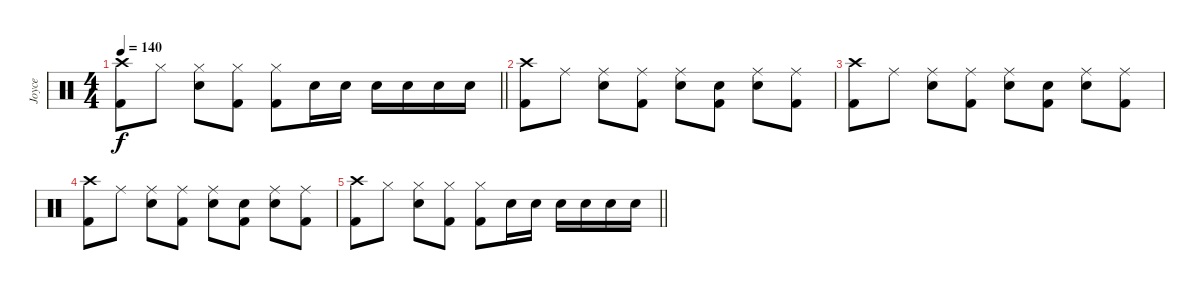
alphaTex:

\track ("Joyce" "Joyce") {instrument percussion}
\staff {score}
\articulation defaults
\ts (4 4)
\tempo 140
\clef neutral
\barLineRight lightlight
\ks c
("Crash high (hit)" "Kick (hit) 2").8{dy f} "Hi-Hat (closed)".8 ("Hi-Hat (closed)" "Snare (hit) 2").8 ("Hi-Hat (closed)" "Kick (hit) 2").8 ("Hi-Hat (closed)" "Kick (hit) 2").8 "Snare (hit) 2".16 "Snare (hit) 2".16 "Snare (hit) 2".16 "Snare (hit) 2".16 "Snare (hit) 2".16 "Snare (hit) 2".16 |
("Crash high (hit)" "Kick (hit) 2").8 "Ride (middle)".8 ("Ride (middle)" "Snare (hit) 2").8 ("Ride (middle)" "Kick (hit) 2").8 ("Ride (middle)" "Snare (hit) 2").8 ("Snare (hit)" "Kick (hit) 2").8 ("Ride (middle)" "Snare (hit) 2").8 ("Ride (middle)" "Kick (hit) 2").8 |
("Crash high (hit)" "Kick (hit) 2").8 "Ride (middle)".8 ("Ride (middle)" "Snare (hit) 2").8 ("Ride (middle)" "Kick (hit) 2").8 ("Ride (middle)" "Snare (hit) 2").8 ("Snare (hit)" "Kick (hit) 2").8 ("Ride (middle)" "Snare (hit) 2").8 ("Ride (middle)" "Kick (hit) 2").8 |
("Crash high (hit)" "Kick (hit) 2").8 "Ride (middle)".8 ("Ride (middle)" "Snare (hit) 2").8 ("Ride (middle)" "Kick (hit) 2").8 ("Ride (middle)" "Snare (hit) 2").8 ("Snare (hit)" "Kick (hit) 2").8 ("Ride (middle)" "Snare (hit) 2").8 ("Ride (middle)" "Kick (hit) 2").8 |
\barLineRight lightlight
("Crash high (hit)" "Kick (hit) 2").8 "Hi-Hat (closed)".8 ("Hi-Hat (closed)" "Snare (hit) 2").8 ("Hi-Hat (closed)" "Kick (hit) 2").8 ("Hi-Hat (closed)" "Kick (hit) 2").8 "Snare (hit) 2".16 "Snare (hit) 2".16 "Snare (hit) 2".16 "Snare (hit) 2".16 "Snare (hit) 2".16 "Snare (hit) 2".16
